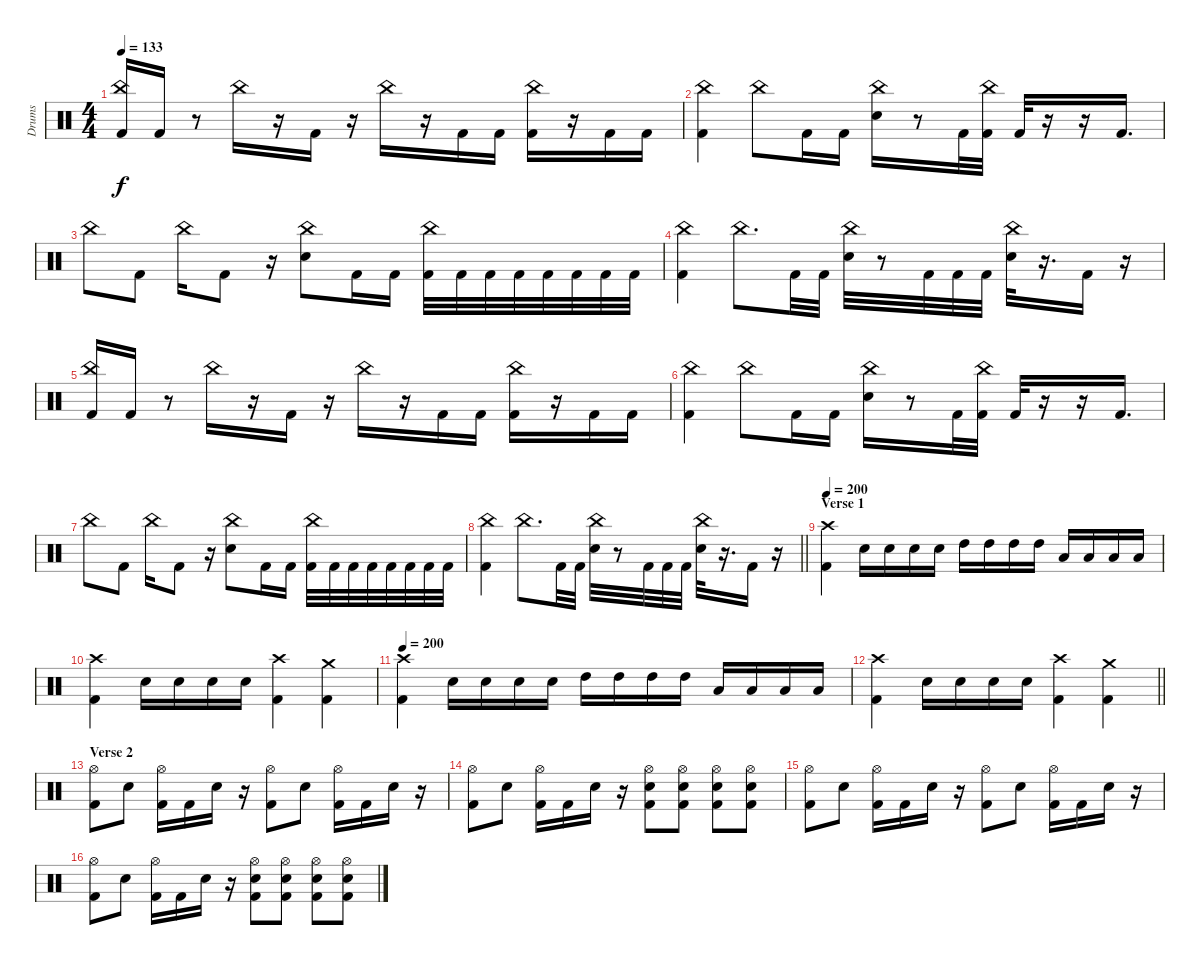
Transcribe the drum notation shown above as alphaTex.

\track ("Drums" "Drums") {instrument percussion}
\staff {score}
\articulation defaults
\ts (4 4)
\tempo 133
\clef neutral
\ks c
("China (hit)" "Kick (hit) 2").16{dy f beam Up} "Kick (hit) 2".16{beam Up} r.8 "China (hit)".16 r.16 "Kick (hit) 2".16 r.16 "China (hit)".16 r.16 "Kick (hit) 2".16 "Kick (hit) 2".16 ("China (hit)" "Kick (hit) 2").16 r.16 "Kick (hit) 2".16 "Kick (hit) 2".16 |
("China (hit)" "Kick (hit) 2").4 "China (hit)".8 "Kick (hit) 2".16 "Kick (hit) 2".16 ("China (hit)" "Snare (hit) 2").16 r.8 "Kick (hit) 2".32 ("China (hit)" "Kick (hit) 2").32 "Kick (hit) 2".32 r.16 r.16 "Kick (hit) 2".16{d} |
"China (hit)".8 "Kick (hit) 2".8 "China (hit)".16 "Kick (hit) 2".8 r.16 ("China (hit)" "Snare (hit) 2").8 "Kick (hit) 2".16 "Kick (hit) 2".16 ("China (hit)" "Kick (hit) 2").32 "Kick (hit) 2".32 "Kick (hit) 2".32 "Kick (hit) 2".32 "Kick (hit) 2".32 "Kick (hit) 2".32 "Kick (hit) 2".32 "Kick (hit) 2".32 |
("China (hit)" "Kick (hit) 2").4 "China (hit)".8{d} "Kick (hit) 2".32 "Kick (hit) 2".32 ("China (hit)" "Snare (hit) 2").32 r.8 "Kick (hit) 2".32 "Kick (hit) 2".32 "Kick (hit) 2".32 ("China (hit)" "Snare (hit) 2").32 r.16{d} "Kick (hit) 2".16 r.16 |
("China (hit)" "Kick (hit) 2").16{beam Up} "Kick (hit) 2".16{beam Up} r.8 "China (hit)".16 r.16 "Kick (hit) 2".16 r.16 "China (hit)".16 r.16 "Kick (hit) 2".16 "Kick (hit) 2".16 ("China (hit)" "Kick (hit) 2").16 r.16 "Kick (hit) 2".16 "Kick (hit) 2".16 |
("China (hit)" "Kick (hit) 2").4 "China (hit)".8 "Kick (hit) 2".16 "Kick (hit) 2".16 ("China (hit)" "Snare (hit) 2").16 r.8 "Kick (hit) 2".32 ("China (hit)" "Kick (hit) 2").32 "Kick (hit) 2".32 r.16 r.16 "Kick (hit) 2".16{d} |
"China (hit)".8 "Kick (hit) 2".8 "China (hit)".16 "Kick (hit) 2".8 r.16 ("China (hit)" "Snare (hit) 2").8 "Kick (hit) 2".16 "Kick (hit) 2".16 ("China (hit)" "Kick (hit) 2").32 "Kick (hit) 2".32 "Kick (hit) 2".32 "Kick (hit) 2".32 "Kick (hit) 2".32 "Kick (hit) 2".32 "Kick (hit) 2".32 "Kick (hit) 2".32 |
\barLineRight lightlight
("China (hit)" "Kick (hit) 2").4 "China (hit)".8{d} "Kick (hit) 2".32 "Kick (hit) 2".32 ("China (hit)" "Snare (hit) 2").32 r.8 "Kick (hit) 2".32 "Kick (hit) 2".32 "Kick (hit) 2".32 ("China (hit)" "Snare (hit) 2").32 r.16{d} "Kick (hit) 2".16 r.16 |
\section ("" "Verse 1")
\tempo 200
("Crash high (hit)" "Kick (hit) 2").4 "Snare (hit) 2".16 "Snare (hit) 2".16 "Snare (hit) 2".16 "Snare (hit) 2".16 "High Tom (hit)".16 "High Tom (hit)".16 "High Tom (hit)".16 "High Tom (hit)".16 "Low Tom (hit)".16 "Low Tom (hit)".16 "Low Tom (hit)".16 "Low Tom (hit)".16 |
("Crash high (hit)" "Kick (hit) 2").4 "Snare (hit) 2".16 "Snare (hit) 2".16 "Snare (hit) 2".16 "Snare (hit) 2".16 ("Crash high (hit)" "Kick (hit) 2").4 ("Crash medium (hit)" "Kick (hit) 2").4 |
\tempo 200
("Crash high (hit)" "Kick (hit) 2").4 "Snare (hit) 2".16 "Snare (hit) 2".16 "Snare (hit) 2".16 "Snare (hit) 2".16 "High Tom (hit)".16 "High Tom (hit)".16 "High Tom (hit)".16 "High Tom (hit)".16 "Low Tom (hit)".16 "Low Tom (hit)".16 "Low Tom (hit)".16 "Low Tom (hit)".16 |
\barLineRight lightlight
("Crash high (hit)" "Kick (hit) 2").4 "Snare (hit) 2".16 "Snare (hit) 2".16 "Snare (hit) 2".16 "Snare (hit) 2".16 ("Crash high (hit)" "Kick (hit) 2").4 ("Crash medium (hit)" "Kick (hit) 2").4 |
\section ("" "Verse 2")
("Hi-Hat (open)" "Kick (hit) 2").8 "Snare (hit) 2".8 ("Hi-Hat (open)" "Kick (hit) 2").16 "Kick (hit) 2".16 "Snare (hit) 2".16 r.16 ("Hi-Hat (open)" "Kick (hit) 2").8 "Snare (hit) 2".8 ("Hi-Hat (open)" "Kick (hit) 2").16 "Kick (hit) 2".16 "Snare (hit) 2".16 r.16 |
("Hi-Hat (open)" "Kick (hit) 2").8 "Snare (hit) 2".8 ("Hi-Hat (open)" "Kick (hit) 2").16 "Kick (hit) 2".16 "Snare (hit) 2".16 r.16 ("Hi-Hat (open)" "Snare (hit) 2" "Kick (hit) 2").8 ("Hi-Hat (open)" "Snare (hit) 2" "Kick (hit) 2").8 ("Hi-Hat (open)" "Snare (hit) 2" "Kick (hit) 2").8 ("Hi-Hat (open)" "Snare (hit) 2" "Kick (hit) 2").8 |
("Hi-Hat (open)" "Kick (hit) 2").8 "Snare (hit) 2".8 ("Hi-Hat (open)" "Kick (hit) 2").16 "Kick (hit) 2".16 "Snare (hit) 2".16 r.16 ("Hi-Hat (open)" "Kick (hit) 2").8 "Snare (hit) 2".8 ("Hi-Hat (open)" "Kick (hit) 2").16 "Kick (hit) 2".16 "Snare (hit) 2".16 r.16 |
("Hi-Hat (open)" "Kick (hit) 2").8 "Snare (hit) 2".8 ("Hi-Hat (open)" "Kick (hit) 2").16 "Kick (hit) 2".16 "Snare (hit) 2".16 r.16 ("Hi-Hat (open)" "Snare (hit) 2" "Kick (hit) 2").8 ("Hi-Hat (open)" "Snare (hit) 2" "Kick (hit) 2").8 ("Hi-Hat (open)" "Snare (hit) 2" "Kick (hit) 2").8 ("Hi-Hat (open)" "Snare (hit) 2" "Kick (hit) 2").8
